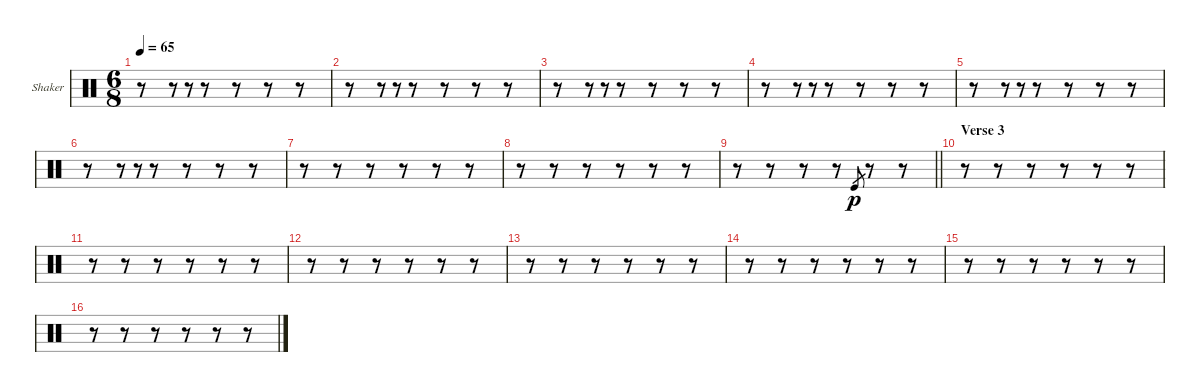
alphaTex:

\bracketExtendMode groupsimilarinstruments
\firstSystemTrackNameOrientation horizontal
\otherSystemsTrackNameOrientation horizontal
\track ("Shaker" "Shaker") {instrument percussion}
\staff {score}
\articulation defaults
\ts (6 8)
\tempo 65
\clef neutral
\ks c
r.8{dy p} r.8 r.8{gr} r.8 r.8 r.8 r.8 |
r.8 r.8 r.8{gr} r.8 r.8 r.8 r.8 |
r.8 r.8 r.8{gr} r.8 r.8 r.8 r.8 |
r.8 r.8 r.8{gr} r.8 r.8 r.8 r.8 |
r.8 r.8 r.8{gr} r.8 r.8 r.8 r.8 |
r.8 r.8 r.8{gr} r.8 r.8 r.8 r.8 |
r.8 r.8 r.8 r.8 r.8 r.8 |
r.8 r.8 r.8 r.8 r.8 r.8 |
\barLineRight lightlight
r.8 r.8 r.8 r.8 "Kick (hit)".8{gr} r.8 r.8 |
\section ("" "Verse 3")
r.8 r.8 r.8 r.8 r.8 r.8 |
r.8 r.8 r.8 r.8 r.8 r.8 |
r.8 r.8 r.8 r.8 r.8 r.8 |
r.8 r.8 r.8 r.8 r.8 r.8 |
r.8 r.8 r.8 r.8 r.8 r.8 |
r.8 r.8 r.8 r.8 r.8 r.8 |
r.8 r.8 r.8 r.8 r.8 r.8
